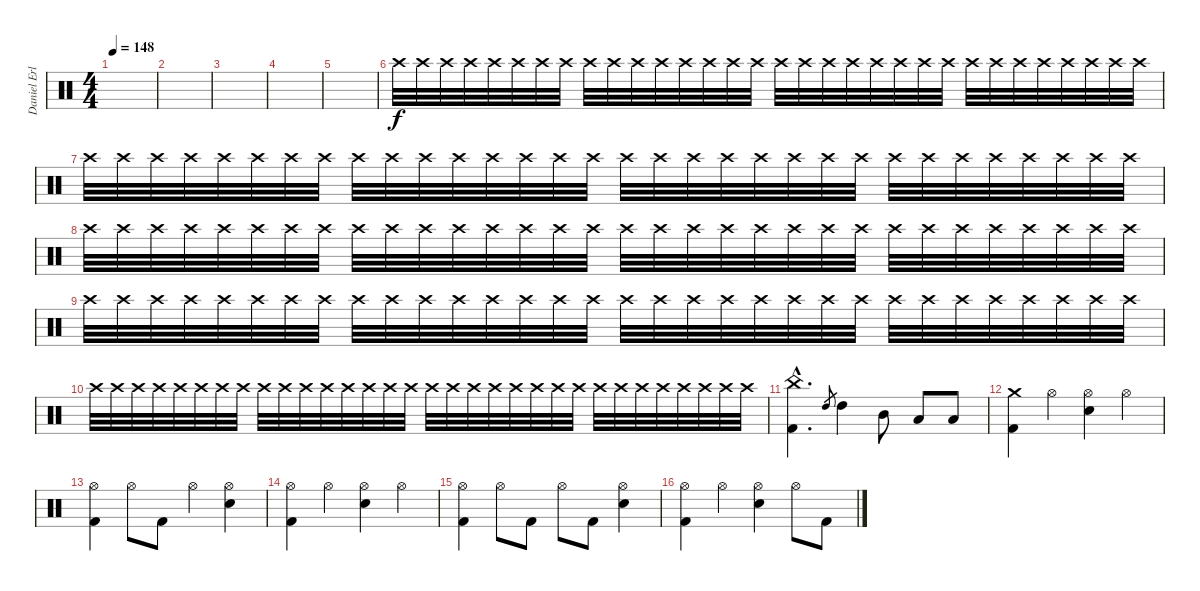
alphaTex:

\track ("Daniel Erlandsson (Drums)" "Daniel Erl") {instrument percussion}
\staff {score}
\articulation defaults
\ts (4 4)
\tempo 148
\clef neutral
\ks c
|
|
|
|
|
"Crash high (hit)".32{volume 0} "Crash high (hit)".32 "Crash high (hit)".32 "Crash high (hit)".32 "Crash high (hit)".32 "Crash high (hit)".32 "Crash high (hit)".32 "Crash high (hit)".32 "Crash high (hit)".32 "Crash high (hit)".32 "Crash high (hit)".32 "Crash high (hit)".32 "Crash high (hit)".32 "Crash high (hit)".32 "Crash high (hit)".32 "Crash high (hit)".32 "Crash high (hit)".32{volume 2} "Crash high (hit)".32 "Crash high (hit)".32 "Crash high (hit)".32 "Crash high (hit)".32 "Crash high (hit)".32 "Crash high (hit)".32 "Crash high (hit)".32 "Crash high (hit)".32 "Crash high (hit)".32 "Crash high (hit)".32 "Crash high (hit)".32 "Crash high (hit)".32 "Crash high (hit)".32 "Crash high (hit)".32 "Crash high (hit)".32 |
"Crash high (hit)".32{volume 4} "Crash high (hit)".32 "Crash high (hit)".32 "Crash high (hit)".32 "Crash high (hit)".32 "Crash high (hit)".32 "Crash high (hit)".32 "Crash high (hit)".32 "Crash high (hit)".32 "Crash high (hit)".32 "Crash high (hit)".32 "Crash high (hit)".32 "Crash high (hit)".32 "Crash high (hit)".32 "Crash high (hit)".32 "Crash high (hit)".32 "Crash high (hit)".32{volume 6} "Crash high (hit)".32 "Crash high (hit)".32 "Crash high (hit)".32 "Crash high (hit)".32 "Crash high (hit)".32 "Crash high (hit)".32 "Crash high (hit)".32 "Crash high (hit)".32 "Crash high (hit)".32 "Crash high (hit)".32 "Crash high (hit)".32 "Crash high (hit)".32 "Crash high (hit)".32 "Crash high (hit)".32 "Crash high (hit)".32 |
"Crash high (hit)".32{volume 8} "Crash high (hit)".32 "Crash high (hit)".32 "Crash high (hit)".32 "Crash high (hit)".32 "Crash high (hit)".32 "Crash high (hit)".32 "Crash high (hit)".32 "Crash high (hit)".32 "Crash high (hit)".32 "Crash high (hit)".32 "Crash high (hit)".32 "Crash high (hit)".32 "Crash high (hit)".32 "Crash high (hit)".32 "Crash high (hit)".32 "Crash high (hit)".32{volume 10} "Crash high (hit)".32 "Crash high (hit)".32 "Crash high (hit)".32 "Crash high (hit)".32 "Crash high (hit)".32 "Crash high (hit)".32 "Crash high (hit)".32 "Crash high (hit)".32 "Crash high (hit)".32 "Crash high (hit)".32 "Crash high (hit)".32 "Crash high (hit)".32 "Crash high (hit)".32 "Crash high (hit)".32 "Crash high (hit)".32 |
"Crash high (hit)".32{volume 11} "Crash high (hit)".32 "Crash high (hit)".32 "Crash high (hit)".32 "Crash high (hit)".32 "Crash high (hit)".32 "Crash high (hit)".32 "Crash high (hit)".32 "Crash high (hit)".32 "Crash high (hit)".32 "Crash high (hit)".32 "Crash high (hit)".32 "Crash high (hit)".32 "Crash high (hit)".32 "Crash high (hit)".32 "Crash high (hit)".32 "Crash high (hit)".32{volume 12} "Crash high (hit)".32 "Crash high (hit)".32 "Crash high (hit)".32 "Crash high (hit)".32 "Crash high (hit)".32 "Crash high (hit)".32 "Crash high (hit)".32 "Crash high (hit)".32 "Crash high (hit)".32 "Crash high (hit)".32 "Crash high (hit)".32 "Crash high (hit)".32 "Crash high (hit)".32 "Crash high (hit)".32 "Crash high (hit)".32 |
"Crash high (hit)".32{volume 13} "Crash high (hit)".32 "Crash high (hit)".32 "Crash high (hit)".32 "Crash high (hit)".32 "Crash high (hit)".32 "Crash high (hit)".32 "Crash high (hit)".32 "Crash high (hit)".32 "Crash high (hit)".32 "Crash high (hit)".32 "Crash high (hit)".32 "Crash high (hit)".32 "Crash high (hit)".32 "Crash high (hit)".32 "Crash high (hit)".32 "Crash high (hit)".32{volume 14} "Crash high (hit)".32 "Crash high (hit)".32 "Crash high (hit)".32 "Crash high (hit)".32 "Crash high (hit)".32 "Crash high (hit)".32 "Crash high (hit)".32 "Crash high (hit)".32 "Crash high (hit)".32 "Crash high (hit)".32 "Crash high (hit)".32 "Crash high (hit)".32 "Crash high (hit)".32 "Crash high (hit)".32 "Crash high (hit)".32 |
("China (hit)"{hac} "Kick (hit) 2"{hac}).4{d} "High Tom (hit)".8{gr} "High Tom (hit)".4 "Mid Tom (hit)".8 "Low Tom (hit)".8 "Low Floor Tom (hit)".8 |
("Crash medium (hit)" "Kick (hit) 2").4 "Hi-Hat (open)".4 ("Hi-Hat (open)" "Snare (hit) 2").4 "Hi-Hat (open)".4 |
("Hi-Hat (open)" "Kick (hit) 2").4 "Hi-Hat (open)".8 "Kick (hit) 2".8 "Hi-Hat (open)".4 ("Hi-Hat (open)" "Snare (hit) 2").4 |
("Hi-Hat (open)" "Kick (hit) 2").4 "Hi-Hat (open)".4 ("Hi-Hat (open)" "Snare (hit) 2").4 "Hi-Hat (open)".4 |
("Hi-Hat (open)" "Kick (hit) 2").4 "Hi-Hat (open)".8 "Kick (hit) 2".8 "Hi-Hat (open)".8 "Kick (hit) 2".8 ("Hi-Hat (open)" "Snare (hit) 2").4 |
("Hi-Hat (open)" "Kick (hit) 2").4 "Hi-Hat (open)".4 ("Hi-Hat (open)" "Snare (hit) 2").4 "Hi-Hat (open)".8 "Kick (hit) 2".8
